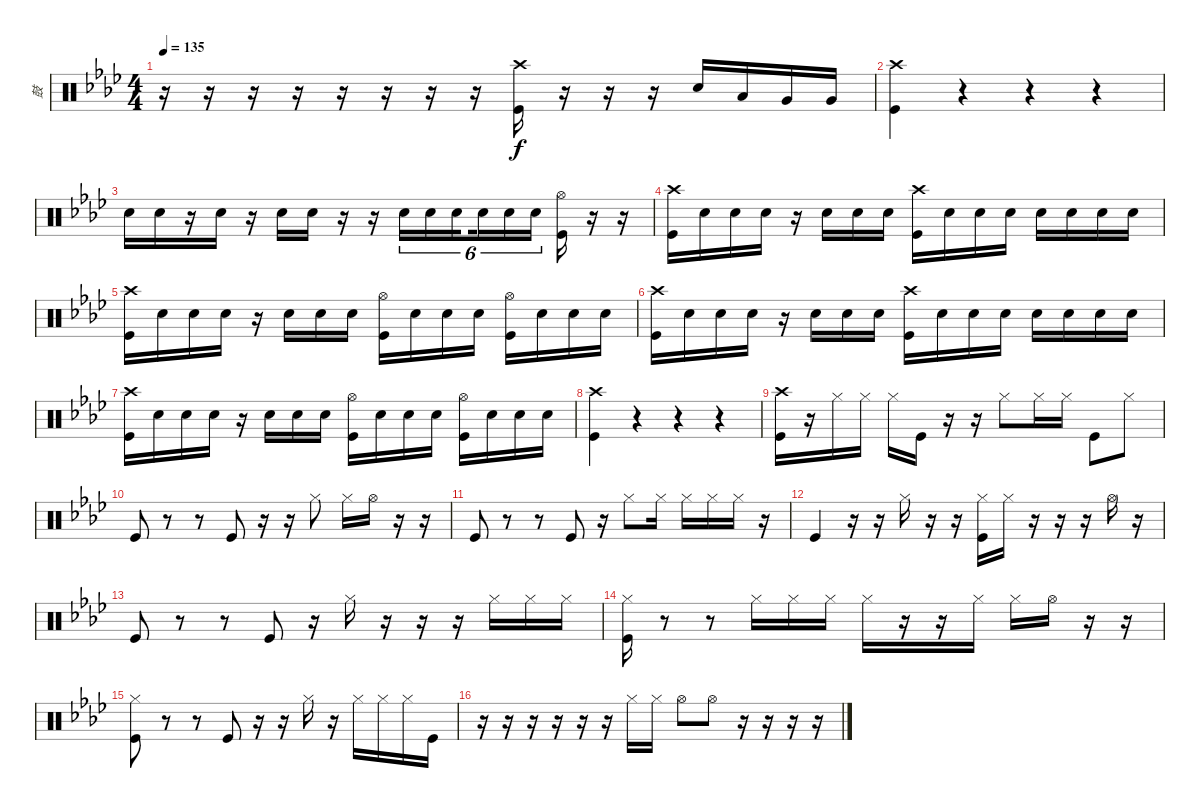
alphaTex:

\track ("鼓" "鼓") {instrument percussion}
\staff {score}
\articulation defaults
\ts (4 4)
\tempo 135
\clef neutral
\ks ab
r.16{dy f} r.16 r.16 r.16 r.16 r.16 r.16 r.16 ("Crash high (hit)" "Kick (hit)").16 r.16 r.16 r.16 "Snare (hit) 2".16 "Low Tom (hit)".16 "Very Low Tom (hit)".16 "Very Low Tom (hit)".16 |
("Crash high (hit)" "Kick (hit)").4 r.4 r.4 r.4 |
"Snare (hit) 2".16 "Snare (hit) 2".16 r.16 "Snare (hit) 2".16 r.16 "Snare (hit) 2".16 "Snare (hit) 2".16 r.16 r.16 "Snare (hit) 2".16{tu (6 4)} "Snare (hit) 2".16{tu (6 4)} "Snare (hit) 2".16{tu (6 4) beam splitsecondary} "Snare (hit) 2".16{tu (6 4)} "Snare (hit) 2".16{tu (6 4)} "Snare (hit) 2".16{tu (6 4)} ("Hi-Hat (open)" "Kick (hit)").16 r.16 r.16 |
("Crash high (hit)" "Kick (hit)").16 "Snare (hit) 2".16 "Snare (hit) 2".16 "Snare (hit) 2".16 r.16 "Snare (hit) 2".16 "Snare (hit) 2".16 "Snare (hit) 2".16 ("Crash high (hit)" "Kick (hit)").16 "Snare (hit) 2".16 "Snare (hit) 2".16 "Snare (hit) 2".16 "Snare (hit) 2".16 "Snare (hit) 2".16 "Snare (hit) 2".16 "Snare (hit) 2".16 |
("Crash high (hit)" "Kick (hit)").16 "Snare (hit) 2".16 "Snare (hit) 2".16 "Snare (hit) 2".16 r.16 "Snare (hit) 2".16 "Snare (hit) 2".16 "Snare (hit) 2".16 ("Hi-Hat (open)" "Kick (hit)").16 "Snare (hit) 2".16 "Snare (hit) 2".16 "Snare (hit) 2".16 ("Hi-Hat (open)" "Kick (hit)").16 "Snare (hit) 2".16 "Snare (hit) 2".16 "Snare (hit) 2".16 |
("Crash high (hit)" "Kick (hit)").16 "Snare (hit) 2".16 "Snare (hit) 2".16 "Snare (hit) 2".16 r.16 "Snare (hit) 2".16 "Snare (hit) 2".16 "Snare (hit) 2".16 ("Crash high (hit)" "Kick (hit)").16 "Snare (hit) 2".16 "Snare (hit) 2".16 "Snare (hit) 2".16 "Snare (hit) 2".16 "Snare (hit) 2".16 "Snare (hit) 2".16 "Snare (hit) 2".16 |
("Crash high (hit)" "Kick (hit)").16 "Snare (hit) 2".16 "Snare (hit) 2".16 "Snare (hit) 2".16 r.16 "Snare (hit) 2".16 "Snare (hit) 2".16 "Snare (hit) 2".16 ("Hi-Hat (open)" "Kick (hit)").16 "Snare (hit) 2".16 "Snare (hit) 2".16 "Snare (hit) 2".16 ("Hi-Hat (open)" "Kick (hit)").16 "Snare (hit) 2".16 "Snare (hit) 2".16 "Snare (hit) 2".16 |
("Crash high (hit)" "Kick (hit)").4 r.4 r.4 r.4 |
("Crash high (hit)" "Kick (hit)").16 r.16 "Hi-Hat (closed)".16 "Hi-Hat (closed)".16 "Hi-Hat (closed)".16 "Kick (hit)".16 r.16 r.16 "Hi-Hat (closed)".8 "Hi-Hat (closed)".16 "Hi-Hat (closed)".16 "Kick (hit)".8 "Hi-Hat (closed)".8 |
"Kick (hit)".8 r.8 r.8 "Kick (hit)".8 r.16 r.16 "Hi-Hat (closed)".8 "Hi-Hat (closed)".16 "Hi-Hat (open)".16 r.16 r.16 |
"Kick (hit)".8 r.8 r.8 "Kick (hit)".8 r.16 "Hi-Hat (closed)".8 "Hi-Hat (closed)".16 "Hi-Hat (closed)".16 "Hi-Hat (closed)".16 "Hi-Hat (closed)".16 r.16 |
"Kick (hit)".4 r.16 r.16 "Hi-Hat (closed)".16 r.16 r.16 ("Hi-Hat (closed)" "Kick (hit)").16 "Hi-Hat (closed)".16 r.16 r.16 r.16 "Hi-Hat (open)".16 r.16 |
"Kick (hit)".8 r.8 r.8 "Kick (hit)".8 r.16 "Hi-Hat (closed)".16 r.16 r.16 r.16 "Hi-Hat (closed)".16 "Hi-Hat (closed)".16 "Hi-Hat (closed)".16 |
("Hi-Hat (closed)" "Kick (hit)").16 r.8 r.8 "Hi-Hat (closed)".16 "Hi-Hat (closed)".16 "Hi-Hat (closed)".16 "Hi-Hat (closed)".16 r.16 r.16 "Hi-Hat (closed)".16 "Hi-Hat (closed)".16 "Hi-Hat (open)".16 r.16 r.16 |
("Hi-Hat (closed)" "Kick (hit)").8 r.8 r.8 "Kick (hit)".8 r.16 r.16 "Hi-Hat (closed)".16 r.16 "Hi-Hat (closed)".16 "Hi-Hat (closed)".16 "Hi-Hat (closed)".16 "Kick (hit)".16 |
r.16 r.16 r.16 r.16 r.16 r.16 "Hi-Hat (closed)".16 "Hi-Hat (closed)".16 "Hi-Hat (open)".8 "Hi-Hat (open)".8 r.16 r.16 r.16 r.16
